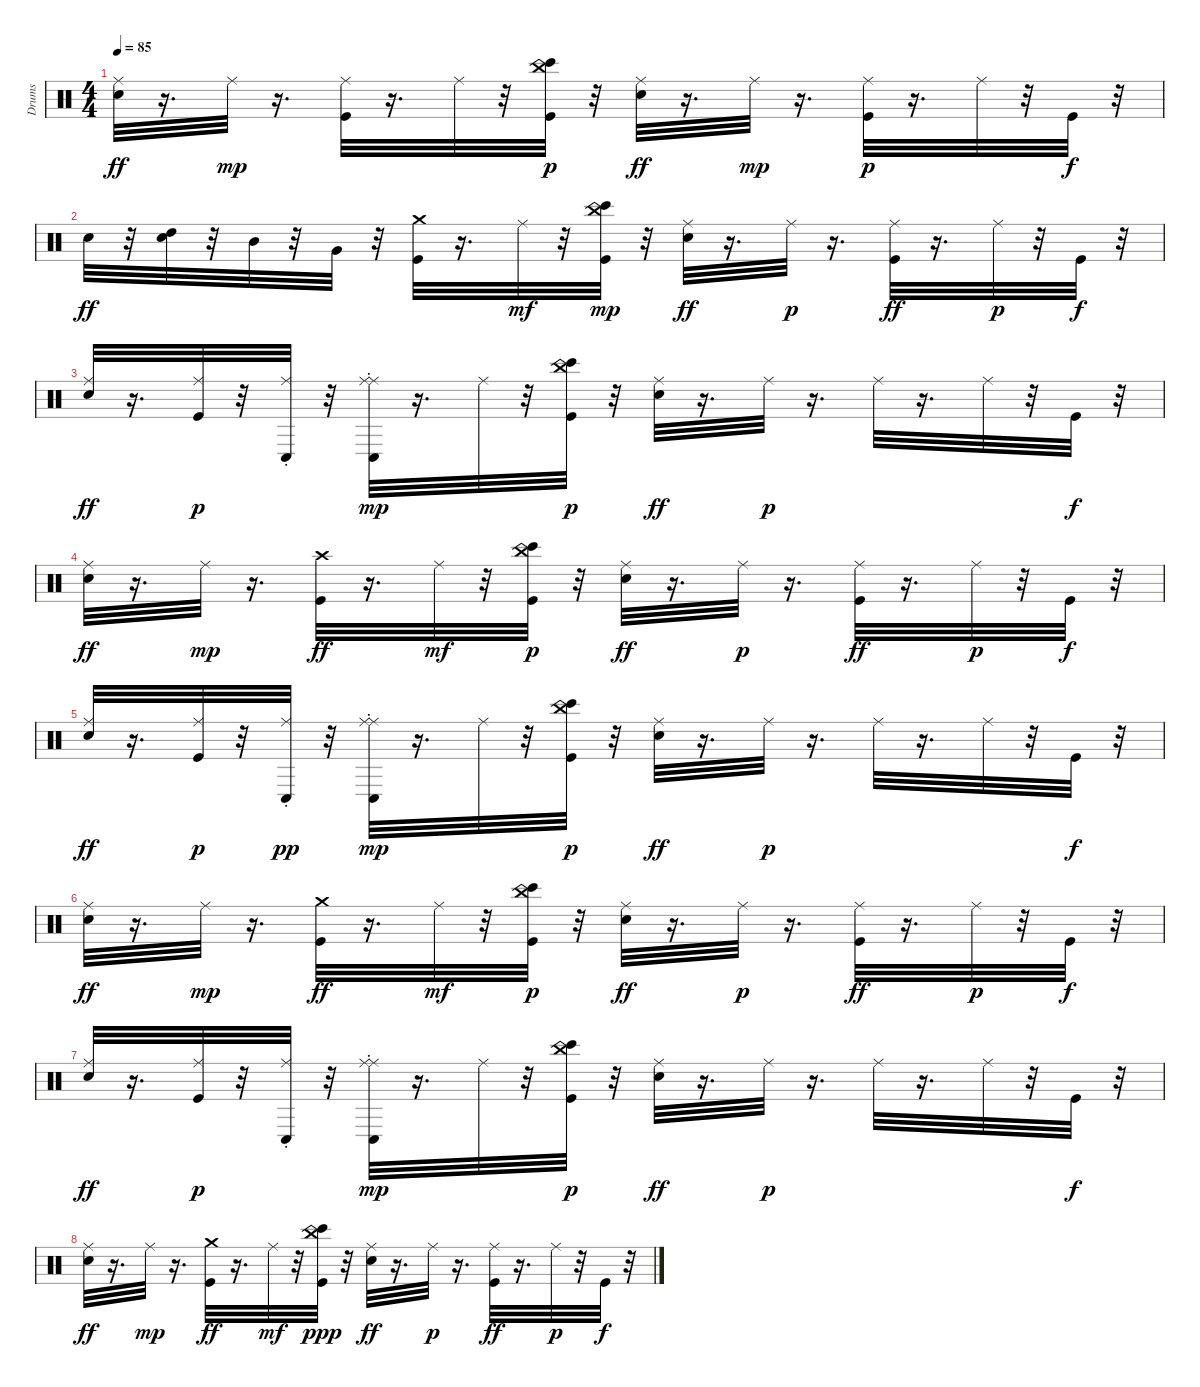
\track ("Drums" "Drums") {instrument percussion}
\staff {score}
\articulation defaults
\ts (4 4)
\tempo 85
\clef neutral
\ks c
("Ride (middle)" "Electric Snare (hit)").32{dy ff} r.16{d} "Ride (middle)".32{dy mp} r.16{d} ("Ride (middle)" "Kick (hit)").32 r.16{d} "Ride (middle)".32 r.32 ("Bongo High (hit)" "China (choke)" "Kick (hit)").32{dy p} r.32 ("Ride (middle)" "Electric Snare (hit)").32{dy ff} r.16{d} "Ride (middle)".32{dy mp} r.16{d} ("Ride (middle)" "Kick (hit)").32{dy p} r.16{d} "Ride (middle)".32 r.32 "Kick (hit)".32{dy f} r.32 |
"Electric Snare (hit)".32{dy ff} r.32 ("Snare (hit)" "High Tom (hit)").32 r.32 "Mid Tom (hit)".32 r.32 "Very Low Tom (hit)".32 r.32 ("Crash medium (hit)" "Kick (hit)").32 r.16{d} "Ride (middle)".32{dy mf} r.32 ("China (choke)" "Bongo High (hit)" "Kick (hit)").32{dy mp} r.32 ("Ride (middle)" "Electric Snare (hit)").32{dy ff} r.16{d} "Ride (middle)".32{dy p} r.16{d} ("Ride (middle)" "Kick (hit)").32{dy ff} r.16{d} "Ride (middle)".32{dy p} r.32 "Kick (hit)".32{dy f} r.32 |
("Ride (middle)" "Electric Snare (hit)").32{dy ff} r.16{d} ("Ride (middle)" "Kick (hit)").32{dy p} r.32 ("Conga low (hit)" "Ride (choke)").32 r.32 ("Conga low (hit)" "Ride (choke)" "Ride (middle)").32{dy mp} r.16{d} "Ride (middle)".32 r.32 ("Bongo High (hit)" "China (choke)" "Kick (hit)").32{dy p} r.32 ("Ride (middle)" "Electric Snare (hit)").32{dy ff} r.16{d} "Ride (middle)".32{dy p} r.16{d} "Ride (middle)".32 r.16{d} "Ride (middle)".32 r.32 "Kick (hit)".32{dy f} r.32 |
("Ride (middle)" "Electric Snare (hit)").32{dy ff} r.16{d} "Ride (middle)".32{dy mp} r.16{d} ("Crash high (hit)" "Kick (hit)").32{dy ff} r.16{d} "Ride (middle)".32{dy mf} r.32 ("Bongo High (hit)" "China (choke)" "Kick (hit)").32{dy p} r.32 ("Ride (middle)" "Electric Snare (hit)").32{dy ff} r.16{d} "Ride (middle)".32{dy p} r.16{d} ("Ride (middle)" "Kick (hit)").32{dy ff} r.16{d} "Ride (middle)".32{dy p} r.32 "Kick (hit)".32{dy f} r.32 |
("Ride (middle)" "Electric Snare (hit)").32{dy ff} r.16{d} ("Ride (middle)" "Kick (hit)").32{dy p} r.32 ("Conga low (hit)" "Ride (choke)").32{dy pp} r.32 ("Ride (choke)" "Conga low (hit)" "Ride (middle)").32{dy mp} r.16{d} "Ride (middle)".32 r.32 ("Bongo High (hit)" "China (choke)" "Kick (hit)").32{dy p} r.32 ("Ride (middle)" "Electric Snare (hit)").32{dy ff} r.16{d} "Ride (middle)".32{dy p} r.16{d} "Ride (middle)".32 r.16{d} "Ride (middle)".32 r.32 "Kick (hit)".32{dy f} r.32 |
("Ride (middle)" "Electric Snare (hit)").32{dy ff} r.16{d} "Ride (middle)".32{dy mp} r.16{d} ("Crash medium (hit)" "Kick (hit)").32{dy ff} r.16{d} "Ride (middle)".32{dy mf} r.32 ("Bongo High (hit)" "China (choke)" "Kick (hit)").32{dy p} r.32 ("Ride (middle)" "Electric Snare (hit)").32{dy ff} r.16{d} "Ride (middle)".32{dy p} r.16{d} ("Ride (middle)" "Kick (hit)").32{dy ff} r.16{d} "Ride (middle)".32{dy p} r.32 "Kick (hit)".32{dy f} r.32 |
("Ride (middle)" "Electric Snare (hit)").32{dy ff} r.16{d} ("Ride (middle)" "Kick (hit)").32{dy p} r.32 ("Ride (choke)" "Conga low (hit)").32 r.32 ("Conga low (hit)" "Ride (choke)" "Ride (middle)").32{dy mp} r.16{d} "Ride (middle)".32 r.32 ("China (choke)" "Bongo High (hit)" "Kick (hit)").32{dy p} r.32 ("Ride (middle)" "Electric Snare (hit)").32{dy ff} r.16{d} "Ride (middle)".32{dy p} r.16{d} "Ride (middle)".32 r.16{d} "Ride (middle)".32 r.32 "Kick (hit)".32{dy f} r.32 |
("Ride (middle)" "Electric Snare (hit)").32{dy ff} r.16{d} "Ride (middle)".32{dy mp} r.16{d} ("Crash medium (hit)" "Kick (hit)").32{dy ff} r.16{d} "Ride (middle)".32{dy mf} r.32 ("China (choke)" "Bongo High (hit)" "Kick (hit)").32{dy ppp} r.32 ("Ride (middle)" "Electric Snare (hit)").32{dy ff} r.16{d} "Ride (middle)".32{dy p} r.16{d} ("Ride (middle)" "Kick (hit)").32{dy ff} r.16{d} "Ride (middle)".32{dy p} r.32 "Kick (hit)".32{dy f} r.32
